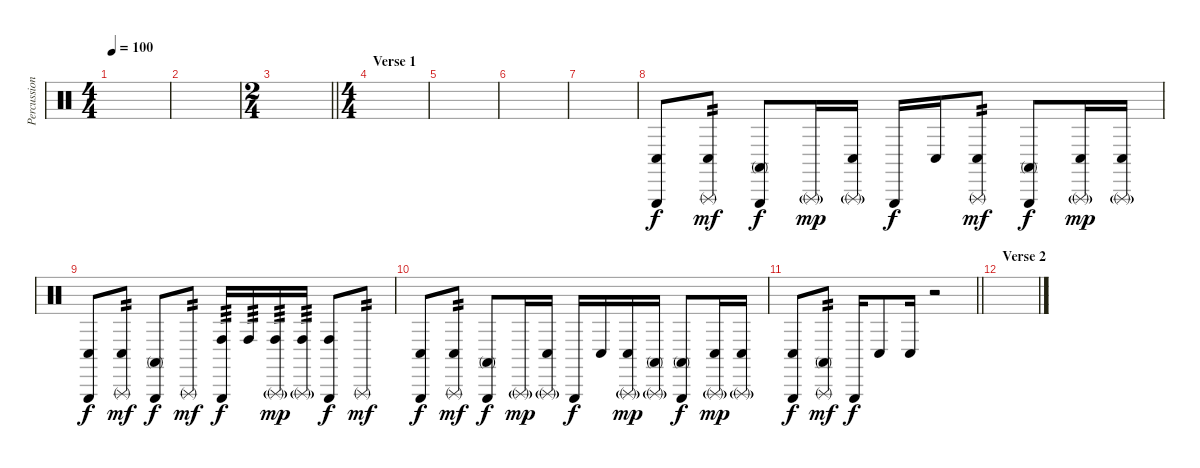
\track ("Percussion" "Percussion") {instrument percussion}
\staff {score}
\articulation defaults
\ts (4 4)
\tempo 100
\clef neutral
\ks c
|
|
\ts (2 4)
\barLineRight lightlight
|
\ts (4 4)
\section ("" "Verse 1")
|
|
|
|
("Triangle (hit)" "Conga low (hit)").8 ("Triangle (rnute)" "Conga low (hit)").8{tp 2 dy mf} ("Triangle (hit)" "Conga high (mute)").8{dy f} "Triangle (rnute)"{g}.16{dy mp} ("Triangle (rnute)"{g} "Conga low (hit)").16 "Triangle (hit)".16{dy f} "Conga low (hit)".16 ("Triangle (rnute)" "Conga low (hit)").8{tp 2 dy mf} ("Triangle (hit)" "Conga high (mute)").8{dy f} ("Triangle (rnute)"{g} "Conga low (hit)").16{dy mp} ("Triangle (rnute)"{g} "Conga low (hit)").16 |
("Triangle (hit)" "Conga low (hit)").8{dy f} ("Triangle (rnute)" "Conga low (hit)").8{tp 2 dy mf} ("Triangle (hit)" "Conga high (mute)").8{dy f} "Triangle (rnute)".8{tp 2 dy mf} ("Triangle (hit)" "Conga high (hit)").16{tp 3 dy f} "Conga high (hit)".16{tp 3} ("Triangle (rnute)"{g} "Conga high (hit)").16{tp 3 dy mp} ("Triangle (rnute)"{g} "Conga high (hit)").16{tp 3} ("Triangle (hit)" "Conga high (hit)").8{dy f} "Triangle (rnute)".8{tp 2 dy mf} |
("Triangle (hit)" "Conga low (hit)").8{dy f} ("Triangle (rnute)" "Conga low (hit)").8{tp 2 dy mf} ("Triangle (hit)" "Conga high (mute)").8{dy f} "Triangle (rnute)"{g}.16{dy mp} ("Triangle (rnute)"{g} "Conga low (hit)").16 "Triangle (hit)".16{dy f} "Conga low (hit)".16 ("Triangle (rnute)"{g} "Conga low (hit)").16{dy mp} ("Triangle (rnute)"{g} "Conga high (mute)").16 ("Triangle (hit)" "Conga high (mute)").8{dy f} ("Triangle (rnute)"{g} "Conga low (hit)").16{dy mp} ("Triangle (rnute)"{g} "Conga low (hit)").16 |
\barLineRight lightlight
("Triangle (hit)" "Conga low (hit)").8{dy f} ("Triangle (rnute)" "Conga high (mute)").8{tp 2 dy mf} "Triangle (hit)".16{dy f} "Conga low (hit)".8 "Conga low (hit)".16 r.2 |
\section ("" "Verse 2")
